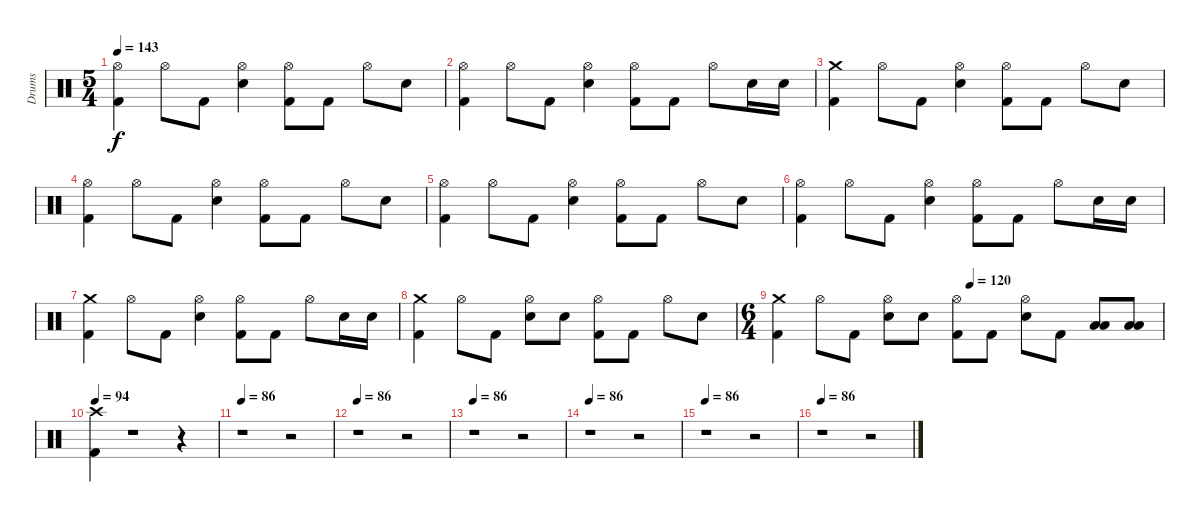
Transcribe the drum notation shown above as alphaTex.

\track ("Drums" "Drums") {instrument percussion}
\staff {score}
\articulation defaults
\ts (5 4)
\tempo 143
\clef neutral
\ks c
("Hi-Hat (open)" "Kick (hit) 2").4{dy f} "Hi-Hat (open)".8 "Kick (hit) 2".8 ("Hi-Hat (open)" "Electric Snare (hit)").4 ("Hi-Hat (open)" "Kick (hit) 2").8 "Kick (hit) 2".8 "Hi-Hat (open)".8 "Electric Snare (hit)".8 |
("Hi-Hat (open)" "Kick (hit) 2").4 "Hi-Hat (open)".8 "Kick (hit) 2".8 ("Hi-Hat (open)" "Electric Snare (hit)").4 ("Hi-Hat (open)" "Kick (hit) 2").8 "Kick (hit) 2".8 "Hi-Hat (open)".8 "Electric Snare (hit)".16 "Electric Snare (hit)".16 |
("Crash medium (hit)" "Kick (hit) 2").4 "Hi-Hat (open)".8 "Kick (hit) 2".8 ("Hi-Hat (open)" "Electric Snare (hit)").4 ("Hi-Hat (open)" "Kick (hit) 2").8 "Kick (hit) 2".8 "Hi-Hat (open)".8 "Electric Snare (hit)".8 |
("Hi-Hat (open)" "Kick (hit) 2").4 "Hi-Hat (open)".8 "Kick (hit) 2".8 ("Hi-Hat (open)" "Electric Snare (hit)").4 ("Hi-Hat (open)" "Kick (hit) 2").8 "Kick (hit) 2".8 "Hi-Hat (open)".8 "Electric Snare (hit)".8 |
("Hi-Hat (open)" "Kick (hit) 2").4 "Hi-Hat (open)".8 "Kick (hit) 2".8 ("Hi-Hat (open)" "Electric Snare (hit)").4 ("Hi-Hat (open)" "Kick (hit) 2").8 "Kick (hit) 2".8 "Hi-Hat (open)".8 "Electric Snare (hit)".8 |
("Hi-Hat (open)" "Kick (hit) 2").4 "Hi-Hat (open)".8 "Kick (hit) 2".8 ("Hi-Hat (open)" "Electric Snare (hit)").4 ("Hi-Hat (open)" "Kick (hit) 2").8 "Kick (hit) 2".8 "Hi-Hat (open)".8 "Electric Snare (hit)".16 "Electric Snare (hit)".16 |
("Crash medium (hit)" "Kick (hit) 2").4 "Hi-Hat (open)".8 "Kick (hit) 2".8 ("Hi-Hat (open)" "Electric Snare (hit)").4 ("Hi-Hat (open)" "Kick (hit) 2").8 "Kick (hit) 2".8 "Hi-Hat (open)".8 "Electric Snare (hit)".16 "Electric Snare (hit)".16 |
("Crash medium (hit)" "Kick (hit) 2").4 "Hi-Hat (open)".8 "Kick (hit) 2".8 ("Hi-Hat (open)" "Electric Snare (hit)").8 "Electric Snare (hit)".8 ("Hi-Hat (open)" "Kick (hit) 2").8 "Kick (hit) 2".8 "Hi-Hat (open)".8 "Electric Snare (hit)".8 |
\ts (6 4)
\tempo (120 0.5)
("Crash medium (hit)" "Kick (hit) 2").4 "Hi-Hat (open)".8 "Kick (hit) 2".8 ("Hi-Hat (open)" "Electric Snare (hit)").8 "Electric Snare (hit)".8 ("Hi-Hat (open)" "Kick (hit) 2").8 "Kick (hit) 2".8 ("Electric Snare (hit)" "Hi-Hat (open)").8 "Kick (hit) 2".8 ("Low Floor Tom (hit)" "Low Tom (hit)").8 ("Low Floor Tom (hit)" "Low Tom (hit)").8 |
\tempo 94
("Crash high (hit)" "Kick (hit) 2").4 r.1 r.4 |
\tempo 86
r.1 r.2 |
\tempo 86
r.1 r.2 |
\tempo 86
r.1 r.2 |
\tempo 86
r.1 r.2 |
\tempo 86
r.1 r.2 |
\tempo 86
r.1 r.2
